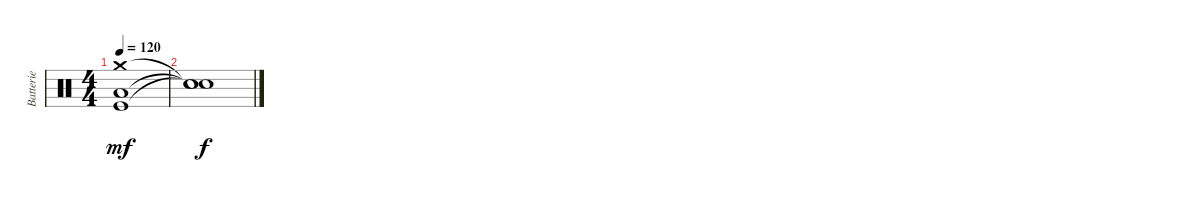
\track ("Batterie" "Batterie") {instrument percussion}
\staff {score}
\articulation defaults
\ts (4 4)
\tempo 120
\clef neutral
\ks c
("Crash medium (hit)" "Low Tom (hit)" "Kick (hit)").1{dy mf} |
("Snare (hit)"{t} "Snare (hit)"{t} "Snare (hit)"{t}).1{dy f}
